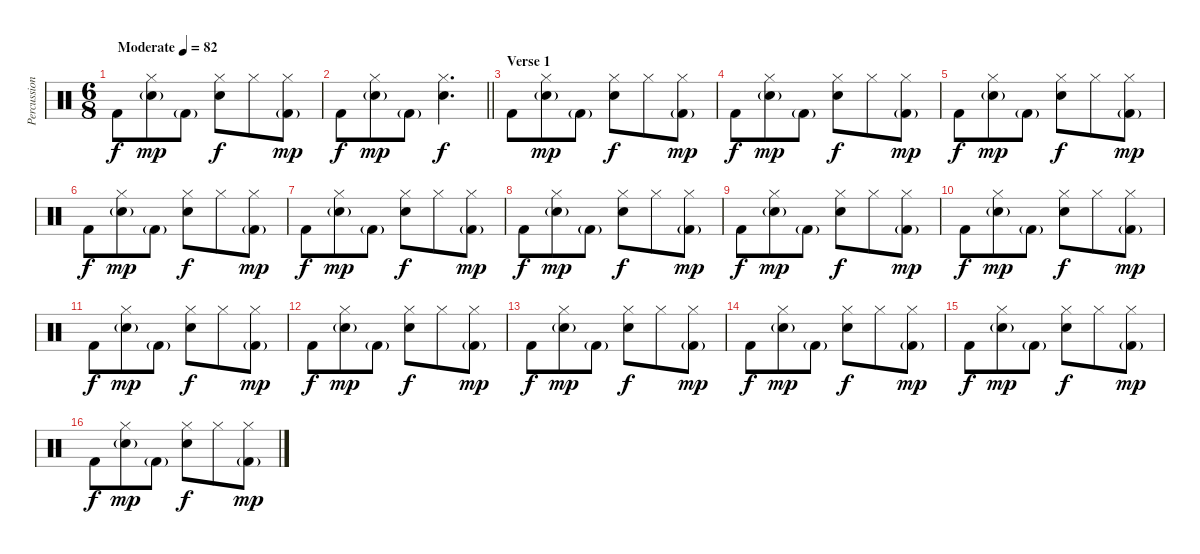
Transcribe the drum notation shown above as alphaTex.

\track ("Percussion" "Percussion") {instrument percussion}
\staff {score}
\articulation defaults
\ts (6 8)
\tempo (82 "Moderate")
\clef neutral
\ks c "Kick (hit) 2".8{dy f}
("Hi-Hat (closed)" "Snare (hit) 2"{g}).8{dy mp} "Kick (hit) 2"{g}.8 ("Hi-Hat (closed)" "Snare (hit) 2").8{dy f} "Hi-Hat (closed)".8 ("Hi-Hat (closed)" "Kick (hit) 2"{g}).8{dy mp} |
\barLineRight lightlight "Kick (hit) 2".8{dy f}
("Hi-Hat (closed)" "Snare (hit) 2"{g}).8{dy mp} "Kick (hit) 2"{g}.8 ("Hi-Hat (closed)" "Snare (hit) 2").4{d dy f} |
\section ("" "Verse 1")
"Kick (hit) 2".8 ("Hi-Hat (closed)" "Snare (hit) 2"{g}).8{dy mp} "Kick (hit) 2"{g}.8 ("Hi-Hat (closed)" "Snare (hit) 2").8{dy f} "Hi-Hat (closed)".8 ("Hi-Hat (closed)" "Kick (hit) 2"{g}).8{dy mp} |
"Kick (hit) 2".8{dy f} ("Hi-Hat (closed)" "Snare (hit) 2"{g}).8{dy mp} "Kick (hit) 2"{g}.8 ("Hi-Hat (closed)" "Snare (hit) 2").8{dy f} "Hi-Hat (closed)".8 ("Hi-Hat (closed)" "Kick (hit) 2"{g}).8{dy mp} |
"Kick (hit) 2".8{dy f} ("Hi-Hat (closed)" "Snare (hit) 2"{g}).8{dy mp} "Kick (hit) 2"{g}.8 ("Hi-Hat (closed)" "Snare (hit) 2").8{dy f} "Hi-Hat (closed)".8 ("Hi-Hat (closed)" "Kick (hit) 2"{g}).8{dy mp} |
"Kick (hit) 2".8{dy f} ("Hi-Hat (closed)" "Snare (hit) 2"{g}).8{dy mp} "Kick (hit) 2"{g}.8 ("Hi-Hat (closed)" "Snare (hit) 2").8{dy f} "Hi-Hat (closed)".8 ("Hi-Hat (closed)" "Kick (hit) 2"{g}).8{dy mp} |
"Kick (hit) 2".8{dy f} ("Hi-Hat (closed)" "Snare (hit) 2"{g}).8{dy mp} "Kick (hit) 2"{g}.8 ("Hi-Hat (closed)" "Snare (hit) 2").8{dy f} "Hi-Hat (closed)".8 ("Hi-Hat (closed)" "Kick (hit) 2"{g}).8{dy mp} |
"Kick (hit) 2".8{dy f} ("Hi-Hat (closed)" "Snare (hit) 2"{g}).8{dy mp} "Kick (hit) 2"{g}.8 ("Hi-Hat (closed)" "Snare (hit) 2").8{dy f} "Hi-Hat (closed)".8 ("Hi-Hat (closed)" "Kick (hit) 2"{g}).8{dy mp} |
"Kick (hit) 2".8{dy f} ("Hi-Hat (closed)" "Snare (hit) 2"{g}).8{dy mp} "Kick (hit) 2"{g}.8 ("Hi-Hat (closed)" "Snare (hit) 2").8{dy f} "Hi-Hat (closed)".8 ("Hi-Hat (closed)" "Kick (hit) 2"{g}).8{dy mp} |
"Kick (hit) 2".8{dy f} ("Hi-Hat (closed)" "Snare (hit) 2"{g}).8{dy mp} "Kick (hit) 2"{g}.8 ("Hi-Hat (closed)" "Snare (hit) 2").8{dy f} "Hi-Hat (closed)".8 ("Hi-Hat (closed)" "Kick (hit) 2"{g}).8{dy mp} |
"Kick (hit) 2".8{dy f} ("Hi-Hat (closed)" "Snare (hit) 2"{g}).8{dy mp} "Kick (hit) 2"{g}.8 ("Hi-Hat (closed)" "Snare (hit) 2").8{dy f} "Hi-Hat (closed)".8 ("Hi-Hat (closed)" "Kick (hit) 2"{g}).8{dy mp} |
"Kick (hit) 2".8{dy f} ("Hi-Hat (closed)" "Snare (hit) 2"{g}).8{dy mp} "Kick (hit) 2"{g}.8 ("Hi-Hat (closed)" "Snare (hit) 2").8{dy f} "Hi-Hat (closed)".8 ("Hi-Hat (closed)" "Kick (hit) 2"{g}).8{dy mp} |
"Kick (hit) 2".8{dy f} ("Hi-Hat (closed)" "Snare (hit) 2"{g}).8{dy mp} "Kick (hit) 2"{g}.8 ("Hi-Hat (closed)" "Snare (hit) 2").8{dy f} "Hi-Hat (closed)".8 ("Hi-Hat (closed)" "Kick (hit) 2"{g}).8{dy mp} |
"Kick (hit) 2".8{dy f} ("Hi-Hat (closed)" "Snare (hit) 2"{g}).8{dy mp} "Kick (hit) 2"{g}.8 ("Hi-Hat (closed)" "Snare (hit) 2").8{dy f} "Hi-Hat (closed)".8 ("Hi-Hat (closed)" "Kick (hit) 2"{g}).8{dy mp} |
"Kick (hit) 2".8{dy f} ("Hi-Hat (closed)" "Snare (hit) 2"{g}).8{dy mp} "Kick (hit) 2"{g}.8 ("Hi-Hat (closed)" "Snare (hit) 2").8{dy f} "Hi-Hat (closed)".8 ("Hi-Hat (closed)" "Kick (hit) 2"{g}).8{dy mp} |
"Kick (hit) 2".8{dy f} ("Hi-Hat (closed)" "Snare (hit) 2"{g}).8{dy mp} "Kick (hit) 2"{g}.8 ("Hi-Hat (closed)" "Snare (hit) 2").8{dy f} "Hi-Hat (closed)".8 ("Hi-Hat (closed)" "Kick (hit) 2"{g}).8{dy mp}
